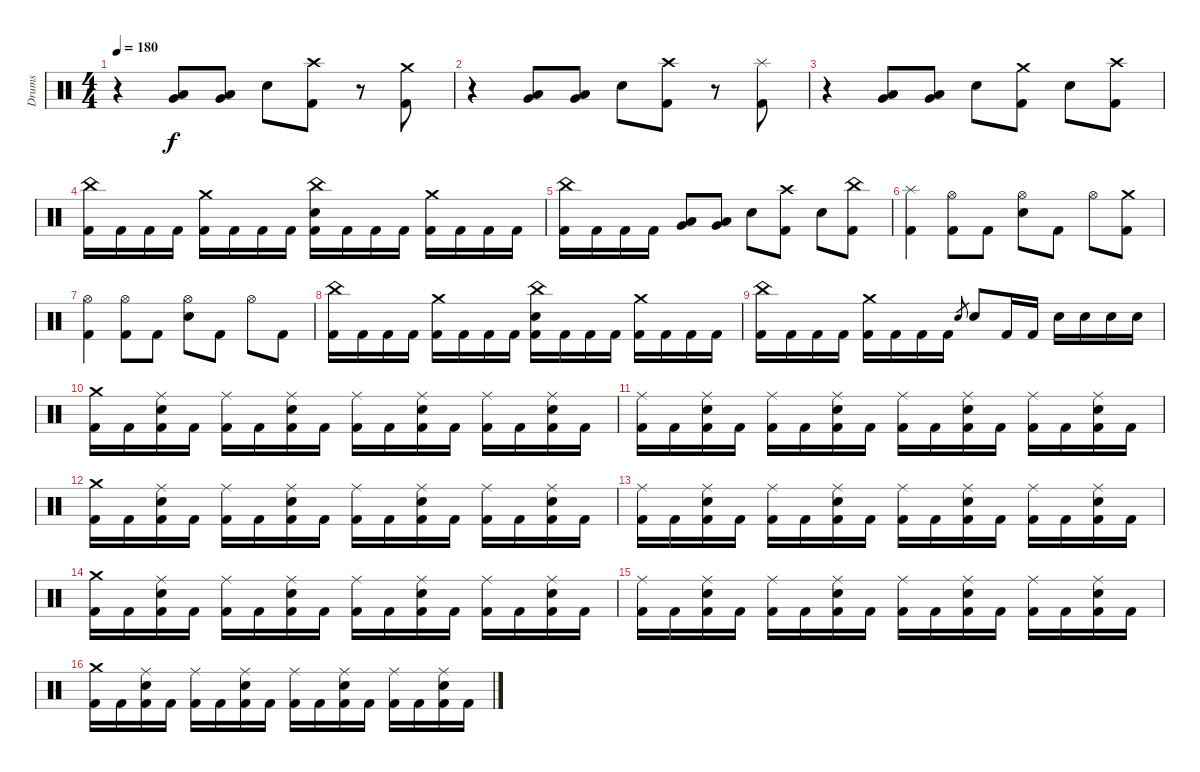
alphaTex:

\track ("Drums" "Drums") {instrument percussion}
\staff {score}
\articulation defaults
\ts (4 4)
\tempo 180
\clef neutral
\ks c
r.4{dy f} ("Low Tom (hit)" "Very Low Tom (hit)").8 ("Low Tom (hit)" "Very Low Tom (hit)").8 "Electric Snare (hit)".8 ("Crash high (hit)" "Kick (hit) 2").8 r.8 ("Crash medium (hit)" "Kick (hit) 2").8 |
r.4 ("Low Tom (hit)" "Very Low Tom (hit)").8 ("Low Tom (hit)" "Very Low Tom (hit)").8 "Electric Snare (hit)".8 ("Crash high (hit)" "Kick (hit) 2").8 r.8 ("Splash (hit)" "Kick (hit) 2").8 |
r.4 ("Low Tom (hit)" "Very Low Tom (hit)").8 ("Low Tom (hit)" "Very Low Tom (hit)").8 "Electric Snare (hit)".8 ("Crash medium (hit)" "Kick (hit) 2").8 "Electric Snare (hit)".8 ("Crash high (hit)" "Kick (hit) 2").8 |
("China (hit)" "Kick (hit) 2").16 "Kick (hit) 2".16 "Kick (hit) 2".16 "Kick (hit) 2".16 ("Crash medium (hit)" "Kick (hit) 2").16 "Kick (hit) 2".16 "Kick (hit) 2".16 "Kick (hit) 2".16 ("China (hit)" "Electric Snare (hit)" "Kick (hit) 2").16 "Kick (hit) 2".16 "Kick (hit) 2".16 "Kick (hit) 2".16 ("Crash medium (hit)" "Kick (hit) 2").16 "Kick (hit) 2".16 "Kick (hit) 2".16 "Kick (hit) 2".16 |
("China (hit)" "Kick (hit) 2").16 "Kick (hit) 2".16 "Kick (hit) 2".16 "Kick (hit) 2".16 ("Low Tom (hit)" "Very Low Tom (hit)").8 ("Low Tom (hit)" "Very Low Tom (hit)").8 "Electric Snare (hit)".8 ("Crash high (hit)" "Kick (hit) 2").8 "Electric Snare (hit)".8 ("China (hit)" "Kick (hit) 2").8 |
("Splash (hit)" "Kick (hit) 2").4 ("Hi-Hat (open)" "Kick (hit) 2").8 "Kick (hit) 2".8 ("Hi-Hat (open)" "Electric Snare (hit)").8 "Kick (hit) 2".8 "Hi-Hat (open)".8 ("Crash medium (hit)" "Kick (hit) 2").8 |
("Hi-Hat (open)" "Kick (hit) 2").4 ("Hi-Hat (open)" "Kick (hit) 2").8 "Kick (hit) 2".8 ("Hi-Hat (open)" "Electric Snare (hit)").8 "Kick (hit) 2".8 "Hi-Hat (open)".8 "Kick (hit) 2".8 |
("China (hit)" "Kick (hit) 2").16 "Kick (hit) 2".16 "Kick (hit) 2".16 "Kick (hit) 2".16 ("Crash medium (hit)" "Kick (hit) 2").16 "Kick (hit) 2".16 "Kick (hit) 2".16 "Kick (hit) 2".16 ("China (hit)" "Electric Snare (hit)" "Kick (hit) 2").16 "Kick (hit) 2".16 "Kick (hit) 2".16 "Kick (hit) 2".16 ("Crash medium (hit)" "Kick (hit) 2").16 "Kick (hit) 2".16 "Kick (hit) 2".16 "Kick (hit) 2".16 |
("China (hit)" "Kick (hit) 2").16 "Kick (hit) 2".16 "Kick (hit) 2".16 "Kick (hit) 2".16 ("Crash medium (hit)" "Kick (hit) 2").16 "Kick (hit) 2".16 "Kick (hit) 2".16 "Kick (hit) 2".16 "Electric Snare (hit)".8{gr} "Electric Snare (hit)".8 "Kick (hit) 2".16 "Kick (hit) 2".16 "Electric Snare (hit)".16 "Electric Snare (hit)".16 "Electric Snare (hit)".16 "Electric Snare (hit)".16 |
("Crash medium (hit)" "Kick (hit) 2").16 "Kick (hit) 2".16 ("Ride (middle)" "Electric Snare (hit)" "Kick (hit) 2").16 "Kick (hit) 2".16 ("Ride (middle)" "Kick (hit) 2").16 "Kick (hit) 2".16 ("Ride (middle)" "Electric Snare (hit)" "Kick (hit) 2").16 "Kick (hit) 2".16 ("Ride (middle)" "Kick (hit) 2").16 "Kick (hit) 2".16 ("Ride (middle)" "Electric Snare (hit)" "Kick (hit) 2").16 "Kick (hit) 2".16 ("Ride (middle)" "Kick (hit) 2").16 "Kick (hit) 2".16 ("Ride (middle)" "Electric Snare (hit)" "Kick (hit) 2").16 "Kick (hit) 2".16 |
("Ride (middle)" "Kick (hit) 2").16 "Kick (hit) 2".16 ("Ride (middle)" "Electric Snare (hit)" "Kick (hit) 2").16 "Kick (hit) 2".16 ("Ride (middle)" "Kick (hit) 2").16 "Kick (hit) 2".16 ("Ride (middle)" "Electric Snare (hit)" "Kick (hit) 2").16 "Kick (hit) 2".16 ("Ride (middle)" "Kick (hit) 2").16 "Kick (hit) 2".16 ("Ride (middle)" "Electric Snare (hit)" "Kick (hit) 2").16 "Kick (hit) 2".16 ("Ride (middle)" "Kick (hit) 2").16 "Kick (hit) 2".16 ("Ride (middle)" "Electric Snare (hit)" "Kick (hit) 2").16 "Kick (hit) 2".16 |
("Crash medium (hit)" "Kick (hit) 2").16 "Kick (hit) 2".16 ("Ride (middle)" "Electric Snare (hit)" "Kick (hit) 2").16 "Kick (hit) 2".16 ("Ride (middle)" "Kick (hit) 2").16 "Kick (hit) 2".16 ("Ride (middle)" "Electric Snare (hit)" "Kick (hit) 2").16 "Kick (hit) 2".16 ("Ride (middle)" "Kick (hit) 2").16 "Kick (hit) 2".16 ("Ride (middle)" "Electric Snare (hit)" "Kick (hit) 2").16 "Kick (hit) 2".16 ("Ride (middle)" "Kick (hit) 2").16 "Kick (hit) 2".16 ("Ride (middle)" "Electric Snare (hit)" "Kick (hit) 2").16 "Kick (hit) 2".16 |
("Ride (middle)" "Kick (hit) 2").16 "Kick (hit) 2".16 ("Ride (middle)" "Electric Snare (hit)" "Kick (hit) 2").16 "Kick (hit) 2".16 ("Ride (middle)" "Kick (hit) 2").16 "Kick (hit) 2".16 ("Ride (middle)" "Electric Snare (hit)" "Kick (hit) 2").16 "Kick (hit) 2".16 ("Ride (middle)" "Kick (hit) 2").16 "Kick (hit) 2".16 ("Ride (middle)" "Electric Snare (hit)" "Kick (hit) 2").16 "Kick (hit) 2".16 ("Ride (middle)" "Kick (hit) 2").16 "Kick (hit) 2".16 ("Ride (middle)" "Electric Snare (hit)" "Kick (hit) 2").16 "Kick (hit) 2".16 |
("Crash medium (hit)" "Kick (hit) 2").16 "Kick (hit) 2".16 ("Ride (middle)" "Electric Snare (hit)" "Kick (hit) 2").16 "Kick (hit) 2".16 ("Ride (middle)" "Kick (hit) 2").16 "Kick (hit) 2".16 ("Ride (middle)" "Electric Snare (hit)" "Kick (hit) 2").16 "Kick (hit) 2".16 ("Ride (middle)" "Kick (hit) 2").16 "Kick (hit) 2".16 ("Ride (middle)" "Electric Snare (hit)" "Kick (hit) 2").16 "Kick (hit) 2".16 ("Ride (middle)" "Kick (hit) 2").16 "Kick (hit) 2".16 ("Ride (middle)" "Electric Snare (hit)" "Kick (hit) 2").16 "Kick (hit) 2".16 |
("Ride (middle)" "Kick (hit) 2").16 "Kick (hit) 2".16 ("Ride (middle)" "Electric Snare (hit)" "Kick (hit) 2").16 "Kick (hit) 2".16 ("Ride (middle)" "Kick (hit) 2").16 "Kick (hit) 2".16 ("Ride (middle)" "Electric Snare (hit)" "Kick (hit) 2").16 "Kick (hit) 2".16 ("Ride (middle)" "Kick (hit) 2").16 "Kick (hit) 2".16 ("Ride (middle)" "Electric Snare (hit)" "Kick (hit) 2").16 "Kick (hit) 2".16 ("Ride (middle)" "Kick (hit) 2").16 "Kick (hit) 2".16 ("Ride (middle)" "Electric Snare (hit)" "Kick (hit) 2").16 "Kick (hit) 2".16 |
("Crash medium (hit)" "Kick (hit) 2").16 "Kick (hit) 2".16 ("Ride (middle)" "Electric Snare (hit)" "Kick (hit) 2").16 "Kick (hit) 2".16 ("Ride (middle)" "Kick (hit) 2").16 "Kick (hit) 2".16 ("Ride (middle)" "Electric Snare (hit)" "Kick (hit) 2").16 "Kick (hit) 2".16 ("Ride (middle)" "Kick (hit) 2").16 "Kick (hit) 2".16 ("Ride (middle)" "Electric Snare (hit)" "Kick (hit) 2").16 "Kick (hit) 2".16 ("Ride (middle)" "Kick (hit) 2").16 "Kick (hit) 2".16 ("Ride (middle)" "Electric Snare (hit)" "Kick (hit) 2").16 "Kick (hit) 2".16
